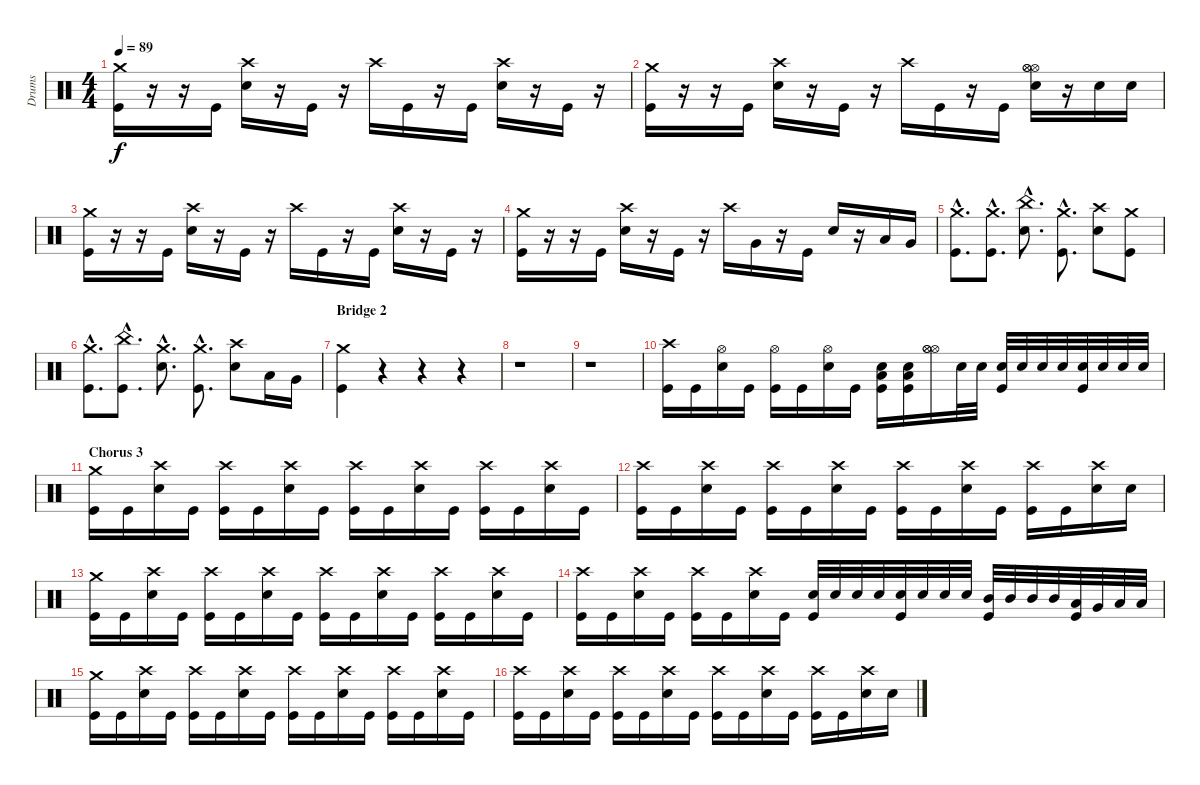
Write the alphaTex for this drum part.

\track ("Drums" "Drums") {instrument percussion}
\staff {score}
\articulation defaults
\ts (4 4)
\tempo 89
\clef neutral
\ks c
("Crash medium (hit)" "Kick (hit)").16{dy f} r.16 r.16 "Kick (hit)".16 ("Crash high (hit)" "Electric Snare (hit)").16 r.16 "Kick (hit)".16 r.16 "Crash high (hit)".16 "Kick (hit)".16 r.16 "Kick (hit)".16 ("Crash high (hit)" "Electric Snare (hit)").16 r.16 "Kick (hit)".16 r.16 |
("Crash medium (hit)" "Kick (hit)").16 r.16 r.16 "Kick (hit)".16 ("Crash high (hit)" "Electric Snare (hit)").16 r.16 "Kick (hit)".16 r.16 "Crash high (hit)".16 "Kick (hit)".16 r.16 "Kick (hit)".16 ("Hi-Hat (open)" "Hi-Hat (open)" "Hi-Hat (open)" "Electric Snare (hit)").16 r.16 "Electric Snare (hit)".16 "Electric Snare (hit)".16 |
("Crash medium (hit)" "Kick (hit)").16 r.16 r.16 "Kick (hit)".16 ("Crash high (hit)" "Electric Snare (hit)").16 r.16 "Kick (hit)".16 r.16 "Crash high (hit)".16 "Kick (hit)".16 r.16 "Kick (hit)".16 ("Crash high (hit)" "Electric Snare (hit)").16 r.16 "Kick (hit)".16 r.16 |
("Crash medium (hit)" "Kick (hit)").16 r.16 r.16 "Kick (hit)".16 ("Crash high (hit)" "Electric Snare (hit)").16 r.16 "Kick (hit)".16 r.16 "Crash high (hit)".16 "Very Low Tom (hit)".16 r.16 "Kick (hit)".16 "Electric Snare (hit)".16 r.16 "Low Tom (hit)".16 "Very Low Tom (hit)".16 |
("Crash medium (hit)"{hac} "Kick (hit)"{hac}).8{d} ("Crash medium (hit)"{hac} "Kick (hit)"{hac}).8{d} ("China (hit)"{hac} "Electric Snare (hit)"{hac}).8{d} ("Crash medium (hit)"{hac} "Kick (hit)"{hac}).8{d} ("Crash high (hit)" "Electric Snare (hit)").8 ("Crash medium (hit)" "Kick (hit)").8 |
("Crash medium (hit)"{hac} "Kick (hit)"{hac}).8{d} ("China (hit)"{hac} "Kick (hit)"{hac}).8{d} ("Crash medium (hit)"{hac} "Electric Snare (hit)"{hac}).8{d} ("Crash medium (hit)"{hac} "Kick (hit)"{hac}).8{d} ("Crash high (hit)" "Electric Snare (hit)").8 "Low Tom (hit)".16 "Very Low Tom (hit)".16 |
\section ("" "Bridge 2")
("Crash medium (hit)" "Kick (hit)").4 r.4 r.4 r.4 |
r.1 |
r.1 |
("Crash high (hit)" "Kick (hit)").16 "Kick (hit)".16 ("Hi-Hat (open)" "Electric Snare (hit)").16 "Kick (hit)".16 ("Hi-Hat (open)" "Kick (hit)").16 "Kick (hit)".16 ("Hi-Hat (open)" "Electric Snare (hit)").16 "Kick (hit)".16 ("Kick (hit)" "Low Floor Tom (hit)" "Electric Snare (hit)").16 ("Kick (hit)" "Low Floor Tom (hit)" "Electric Snare (hit)").16 ("Hi-Hat (open)" "Hi-Hat (open)" "Hi-Hat (open)").16 "Electric Snare (hit)".32 "Electric Snare (hit)".32 ("Electric Snare (hit)" "Kick (hit)").32 "Electric Snare (hit)".32 "Electric Snare (hit)".32 "Electric Snare (hit)".32 ("Electric Snare (hit)" "Kick (hit)").32 "Electric Snare (hit)".32 "Electric Snare (hit)".32 "Electric Snare (hit)".32 |
\section ("" "Chorus 3")
("Crash medium (hit)" "Kick (hit)").16 "Kick (hit)".16 ("Crash high (hit)" "Electric Snare (hit)").16 "Kick (hit)".16 ("Crash high (hit)" "Kick (hit)").16 "Kick (hit)".16 ("Crash high (hit)" "Electric Snare (hit)").16 "Kick (hit)".16 ("Crash high (hit)" "Kick (hit)").16 "Kick (hit)".16 ("Crash high (hit)" "Electric Snare (hit)").16 "Kick (hit)".16 ("Crash high (hit)" "Kick (hit)").16 "Kick (hit)".16 ("Crash high (hit)" "Electric Snare (hit)").16 "Kick (hit)".16 |
("Crash high (hit)" "Kick (hit)").16 "Kick (hit)".16 ("Crash high (hit)" "Electric Snare (hit)").16 "Kick (hit)".16 ("Crash high (hit)" "Kick (hit)").16 "Kick (hit)".16 ("Crash high (hit)" "Electric Snare (hit)").16 "Kick (hit)".16 ("Crash high (hit)" "Kick (hit)").16 "Kick (hit)".16 ("Crash high (hit)" "Electric Snare (hit)").16 "Kick (hit)".16 ("Crash high (hit)" "Kick (hit)").16 "Kick (hit)".16 ("Crash high (hit)" "Electric Snare (hit)").16 "Electric Snare (hit)".16 |
("Crash medium (hit)" "Kick (hit)").16 "Kick (hit)".16 ("Crash high (hit)" "Electric Snare (hit)").16 "Kick (hit)".16 ("Crash high (hit)" "Kick (hit)").16 "Kick (hit)".16 ("Crash high (hit)" "Electric Snare (hit)").16 "Kick (hit)".16 ("Crash high (hit)" "Kick (hit)").16 "Kick (hit)".16 ("Crash high (hit)" "Electric Snare (hit)").16 "Kick (hit)".16 ("Crash high (hit)" "Kick (hit)").16 "Kick (hit)".16 ("Crash high (hit)" "Electric Snare (hit)").16 "Kick (hit)".16 |
("Crash high (hit)" "Kick (hit)").16 "Kick (hit)".16 ("Crash high (hit)" "Electric Snare (hit)").16 "Kick (hit)".16 ("Crash high (hit)" "Kick (hit)").16 "Kick (hit)".16 ("Crash high (hit)" "Electric Snare (hit)").16 "Kick (hit)".16 ("Electric Snare (hit)" "Kick (hit)").32 "Electric Snare (hit)".32 "Electric Snare (hit)".32 "Electric Snare (hit)".32 ("Electric Snare (hit)" "Kick (hit)").32 "Electric Snare (hit)".32 "Electric Snare (hit)".32 "Electric Snare (hit)".32 ("Mid Tom (hit)" "Kick (hit)").32 "Mid Tom (hit)".32 "Mid Tom (hit)".32 "Mid Tom (hit)".32 ("Low Tom (hit)" "Kick (hit)").32 "Very Low Tom (hit)".32 "Low Floor Tom (hit)".32 "Low Floor Tom (hit)".32 |
("Crash medium (hit)" "Kick (hit)").16 "Kick (hit)".16 ("Crash high (hit)" "Electric Snare (hit)").16 "Kick (hit)".16 ("Crash high (hit)" "Kick (hit)").16 "Kick (hit)".16 ("Crash high (hit)" "Electric Snare (hit)").16 "Kick (hit)".16 ("Crash high (hit)" "Kick (hit)").16 "Kick (hit)".16 ("Crash high (hit)" "Electric Snare (hit)").16 "Kick (hit)".16 ("Crash high (hit)" "Kick (hit)").16 "Kick (hit)".16 ("Crash high (hit)" "Electric Snare (hit)").16 "Kick (hit)".16 |
("Crash high (hit)" "Kick (hit)").16 "Kick (hit)".16 ("Crash high (hit)" "Electric Snare (hit)").16 "Kick (hit)".16 ("Crash high (hit)" "Kick (hit)").16 "Kick (hit)".16 ("Crash high (hit)" "Electric Snare (hit)").16 "Kick (hit)".16 ("Crash high (hit)" "Kick (hit)").16 "Kick (hit)".16 ("Crash high (hit)" "Electric Snare (hit)").16 "Kick (hit)".16 ("Crash high (hit)" "Kick (hit)").16 "Kick (hit)".16 ("Crash high (hit)" "Electric Snare (hit)").16 "Electric Snare (hit)".16
